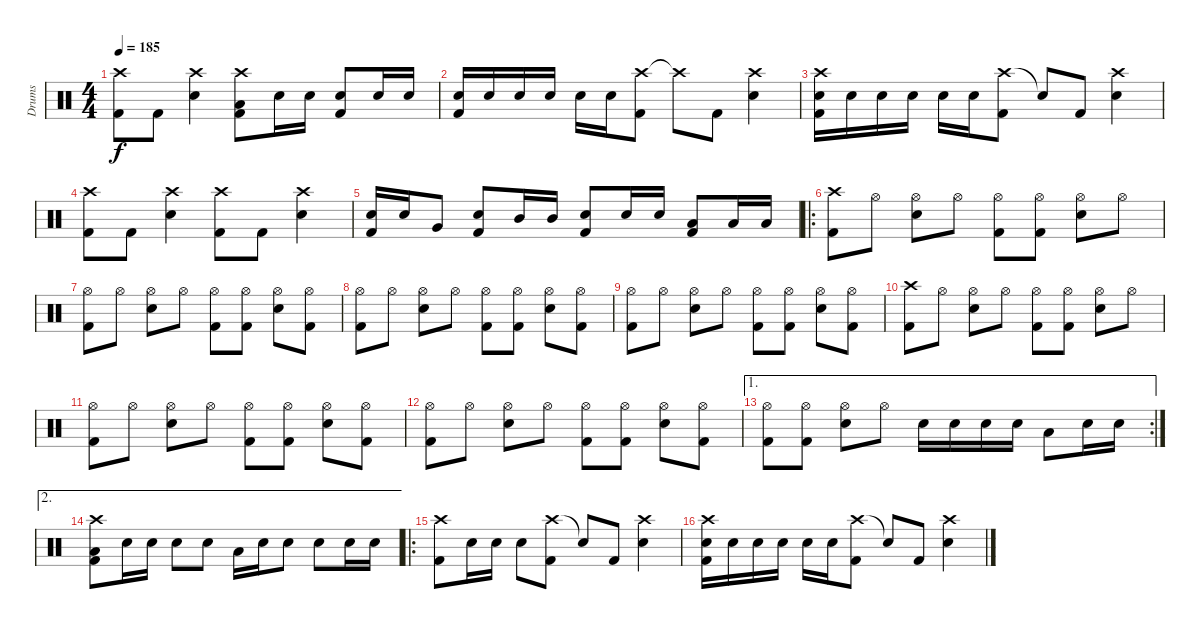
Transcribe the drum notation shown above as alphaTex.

\track ("Drums" "Drums") {instrument percussion}
\staff {score}
\articulation defaults
\ts (4 4)
\tempo 185
\clef neutral
\ks c
("Crash high (hit)" "Kick (hit) 2").8{dy f} "Kick (hit) 2".8 ("Crash high (hit)" "Electric Snare (hit)").4 ("Crash high (hit)" "Low Floor Tom (hit)" "Kick (hit) 2").8 "Electric Snare (hit)".16 "Electric Snare (hit)".16 ("Electric Snare (hit)" "Kick (hit) 2").8 "Electric Snare (hit)".16 "Electric Snare (hit)".16 |
("Electric Snare (hit)" "Kick (hit) 2").16 "Electric Snare (hit)".16 "Electric Snare (hit)".16 "Electric Snare (hit)".16 "Electric Snare (hit)".16 "Electric Snare (hit)".16 ("Crash high (hit)" "Kick (hit) 2").8 "Crash high (hit)"{t}.8 "Kick (hit) 2".8 ("Crash high (hit)" "Electric Snare (hit)").4 |
("Crash high (hit)" "Electric Snare (hit)" "Kick (hit) 2").16 "Electric Snare (hit)".16 "Electric Snare (hit)".16 "Electric Snare (hit)".16 "Electric Snare (hit)".16 "Electric Snare (hit)".16 ("Crash high (hit)" "Kick (hit) 2").8 "Snare (hit)"{t}.8 "Kick (hit) 2".8 ("Crash high (hit)" "Electric Snare (hit)").4 |
("Crash high (hit)" "Kick (hit) 2").8 "Kick (hit) 2".8 ("Crash high (hit)" "Electric Snare (hit)").4 ("Crash high (hit)" "Kick (hit) 2").8 "Kick (hit) 2".8 ("Crash high (hit)" "Electric Snare (hit)").4 |
("Electric Snare (hit)" "Kick (hit) 2").16 "Electric Snare (hit)".16 "Very Low Tom (hit)".8 ("Electric Snare (hit)" "Kick (hit) 2").8 "Mid Tom (hit)".16 "Mid Tom (hit)".16 ("Electric Snare (hit)" "Kick (hit) 2").8 "Electric Snare (hit)".16 "Electric Snare (hit)".16 ("Low Floor Tom (hit)" "Kick (hit) 2").8 "Low Floor Tom (hit)".16 "Low Floor Tom (hit)".16 |
\ro
("Crash high (hit)" "Kick (hit) 2").8 "Hi-Hat (open)".8 ("Hi-Hat (open)" "Electric Snare (hit)").8 "Hi-Hat (open)".8 ("Hi-Hat (open)" "Kick (hit) 2").8 ("Hi-Hat (open)" "Kick (hit) 2").8 ("Hi-Hat (open)" "Electric Snare (hit)").8 "Hi-Hat (open)".8 |
("Hi-Hat (open)" "Kick (hit) 2").8 "Hi-Hat (open)".8 ("Hi-Hat (open)" "Electric Snare (hit)").8 "Hi-Hat (open)".8 ("Hi-Hat (open)" "Kick (hit) 2").8 ("Hi-Hat (open)" "Kick (hit) 2").8 ("Hi-Hat (open)" "Electric Snare (hit)").8 ("Hi-Hat (open)" "Kick (hit) 2").8 |
("Hi-Hat (open)" "Kick (hit) 2").8 "Hi-Hat (open)".8 ("Hi-Hat (open)" "Electric Snare (hit)").8 "Hi-Hat (open)".8 ("Hi-Hat (open)" "Kick (hit) 2").8 ("Hi-Hat (open)" "Kick (hit) 2").8 ("Hi-Hat (open)" "Electric Snare (hit)").8 ("Hi-Hat (open)" "Kick (hit) 2").8 |
("Hi-Hat (open)" "Kick (hit) 2").8 "Hi-Hat (open)".8 ("Hi-Hat (open)" "Electric Snare (hit)").8 "Hi-Hat (open)".8 ("Hi-Hat (open)" "Kick (hit) 2").8 ("Hi-Hat (open)" "Kick (hit) 2").8 ("Hi-Hat (open)" "Electric Snare (hit)").8 ("Hi-Hat (open)" "Kick (hit) 2").8 |
("Crash high (hit)" "Kick (hit) 2").8 "Hi-Hat (open)".8 ("Hi-Hat (open)" "Electric Snare (hit)").8 "Hi-Hat (open)".8 ("Hi-Hat (open)" "Kick (hit) 2").8 ("Hi-Hat (open)" "Kick (hit) 2").8 ("Hi-Hat (open)" "Electric Snare (hit)").8 "Hi-Hat (open)".8 |
("Hi-Hat (open)" "Kick (hit) 2").8 "Hi-Hat (open)".8 ("Hi-Hat (open)" "Electric Snare (hit)").8 "Hi-Hat (open)".8 ("Hi-Hat (open)" "Kick (hit) 2").8 ("Hi-Hat (open)" "Kick (hit) 2").8 ("Hi-Hat (open)" "Electric Snare (hit)").8 ("Hi-Hat (open)" "Kick (hit) 2").8 |
("Hi-Hat (open)" "Kick (hit) 2").8 "Hi-Hat (open)".8 ("Hi-Hat (open)" "Electric Snare (hit)").8 "Hi-Hat (open)".8 ("Hi-Hat (open)" "Kick (hit) 2").8 ("Hi-Hat (open)" "Kick (hit) 2").8 ("Hi-Hat (open)" "Electric Snare (hit)").8 ("Hi-Hat (open)" "Kick (hit) 2").8 |
\ae 1
\rc 2
("Hi-Hat (open)" "Kick (hit) 2").8 ("Hi-Hat (open)" "Kick (hit) 2").8 ("Hi-Hat (open)" "Electric Snare (hit)").8 "Hi-Hat (open)".8 "Electric Snare (hit)".16 "Electric Snare (hit)".16 "Electric Snare (hit)".16 "Electric Snare (hit)".16 "Low Floor Tom (hit)".8 "Electric Snare (hit)".16 "Electric Snare (hit)".16 |
\ae 2
("Crash high (hit)" "Low Floor Tom (hit)" "Kick (hit) 2").8 "Electric Snare (hit)".16 "Electric Snare (hit)".16 "Electric Snare (hit)".8 "Electric Snare (hit)".8 "Low Floor Tom (hit)".16 "Electric Snare (hit)".16 "Electric Snare (hit)".8 "Electric Snare (hit)".8 "Electric Snare (hit)".16 "Electric Snare (hit)".16 |
\ro
("Crash high (hit)" "Kick (hit) 2").8 "Electric Snare (hit)".16 "Electric Snare (hit)".16 "Electric Snare (hit)".8 ("Crash high (hit)" "Kick (hit) 2").8 "Snare (hit)"{t}.8 "Kick (hit) 2".8 ("Crash high (hit)" "Electric Snare (hit)").4 |
("Crash high (hit)" "Electric Snare (hit)" "Kick (hit) 2").16 "Electric Snare (hit)".16 "Electric Snare (hit)".16 "Electric Snare (hit)".16 "Electric Snare (hit)".16 "Electric Snare (hit)".16 ("Crash high (hit)" "Kick (hit) 2").8 "Snare (hit)"{t}.8 "Kick (hit) 2".8 ("Crash high (hit)" "Electric Snare (hit)").4
